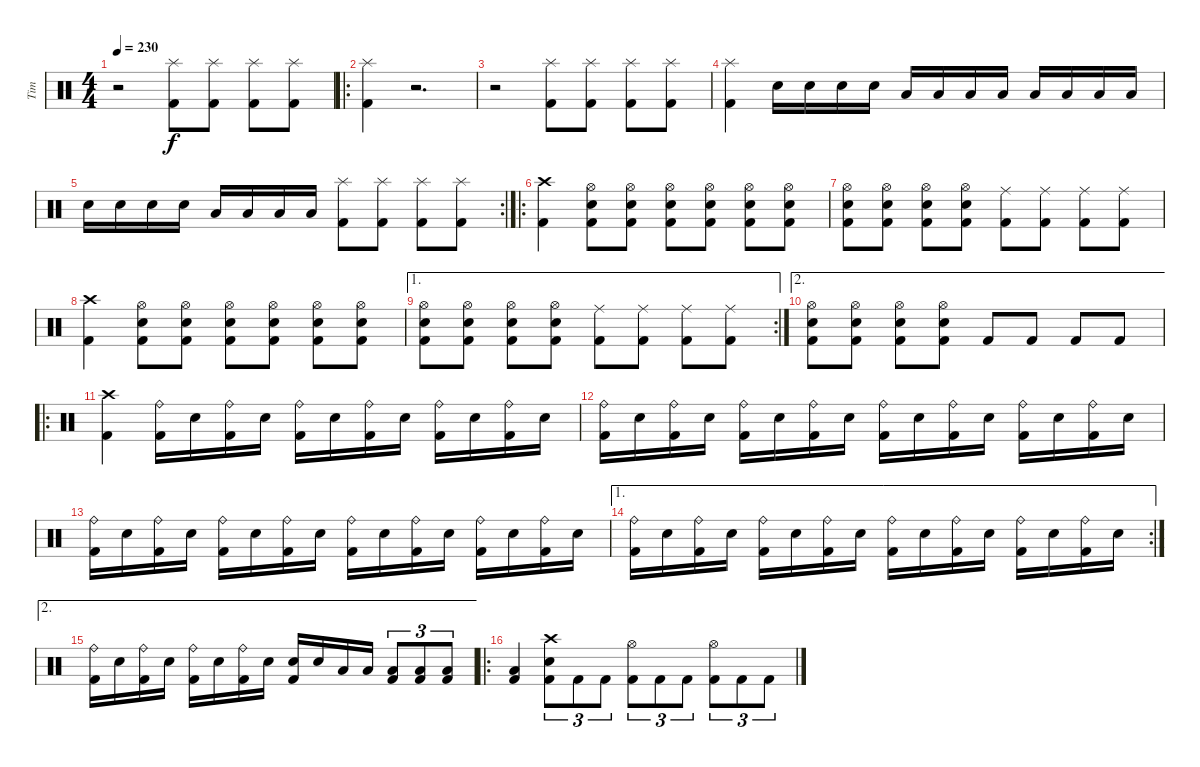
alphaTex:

\track ("Tim" "Tim") {instrument percussion}
\staff {score}
\articulation defaults
\ts (4 4)
\tempo 230
\clef neutral
\ks c
r.2{dy f} ("Splash (hit)" "Kick (hit) 2").8 ("Splash (hit)" "Kick (hit) 2").8 ("Splash (hit)" "Kick (hit) 2").8 ("Splash (hit)" "Kick (hit) 2").8 |
\ro
("Splash (hit)" "Kick (hit) 2").4 r.2{d} |
r.2 ("Splash (hit)" "Kick (hit) 2").8 ("Splash (hit)" "Kick (hit) 2").8 ("Splash (hit)" "Kick (hit) 2").8 ("Splash (hit)" "Kick (hit) 2").8 |
("Splash (hit)" "Kick (hit) 2").4 "Snare (hit) 2".16 "Snare (hit) 2".16 "Snare (hit) 2".16 "Snare (hit) 2".16 "Low Tom (hit)".16 "Low Tom (hit)".16 "Low Tom (hit)".16 "Low Tom (hit)".16 "Low Floor Tom (hit)".16 "Low Floor Tom (hit)".16 "Low Floor Tom (hit)".16 "Low Floor Tom (hit)".16 |
\rc 2 "Snare (hit) 2".16 "Snare (hit) 2".16 "Snare (hit) 2".16 "Snare (hit) 2".16 "Low Tom (hit)".16 "Low Tom (hit)".16 "Low Tom (hit)".16 "Low Tom (hit)".16
("Splash (hit)" "Kick (hit) 2").8 ("Splash (hit)" "Kick (hit) 2").8 ("Splash (hit)" "Kick (hit) 2").8 ("Splash (hit)" "Kick (hit) 2").8 |
\ro
("Crash high (hit)" "Kick (hit) 2").4 ("Snare (hit) 2" "Hi-Hat (open)" "Kick (hit) 2").8 ("Snare (hit) 2" "Hi-Hat (open)" "Kick (hit) 2").8 ("Snare (hit) 2" "Hi-Hat (open)" "Kick (hit) 2").8 ("Snare (hit) 2" "Hi-Hat (open)" "Kick (hit) 2").8 ("Snare (hit) 2" "Hi-Hat (open)" "Kick (hit) 2").8 ("Snare (hit) 2" "Hi-Hat (open)" "Kick (hit) 2").8 |
("Snare (hit) 2" "Hi-Hat (open)" "Kick (hit) 2").8 ("Snare (hit) 2" "Hi-Hat (open)" "Kick (hit) 2").8 ("Snare (hit) 2" "Hi-Hat (open)" "Kick (hit) 2").8 ("Snare (hit) 2" "Hi-Hat (open)" "Kick (hit) 2").8 ("Ride (middle)" "Kick (hit) 2").8 ("Ride (middle)" "Kick (hit) 2").8 ("Ride (middle)" "Kick (hit) 2").8 ("Ride (middle)" "Kick (hit) 2").8 |
("Crash high (hit)" "Kick (hit) 2").4 ("Snare (hit) 2" "Hi-Hat (open)" "Kick (hit) 2").8 ("Snare (hit) 2" "Hi-Hat (open)" "Kick (hit) 2").8 ("Snare (hit) 2" "Hi-Hat (open)" "Kick (hit) 2").8 ("Snare (hit) 2" "Hi-Hat (open)" "Kick (hit) 2").8 ("Snare (hit) 2" "Hi-Hat (open)" "Kick (hit) 2").8 ("Snare (hit) 2" "Hi-Hat (open)" "Kick (hit) 2").8 |
\ae 1
\rc 2
("Snare (hit) 2" "Hi-Hat (open)" "Kick (hit) 2").8 ("Snare (hit) 2" "Hi-Hat (open)" "Kick (hit) 2").8 ("Snare (hit) 2" "Hi-Hat (open)" "Kick (hit) 2").8 ("Snare (hit) 2" "Hi-Hat (open)" "Kick (hit) 2").8 ("Ride (middle)" "Kick (hit) 2").8 ("Ride (middle)" "Kick (hit) 2").8 ("Ride (middle)" "Kick (hit) 2").8 ("Ride (middle)" "Kick (hit) 2").8 |
\ae 2
("Snare (hit) 2" "Hi-Hat (open)" "Kick (hit) 2").8 ("Snare (hit) 2" "Hi-Hat (open)" "Kick (hit) 2").8 ("Snare (hit) 2" "Hi-Hat (open)" "Kick (hit) 2").8 ("Snare (hit) 2" "Hi-Hat (open)" "Kick (hit) 2").8 "Kick (hit) 2".8 "Kick (hit) 2".8 "Kick (hit) 2".8 "Kick (hit) 2".8 |
\ro
("Crash high (hit)" "Kick (hit) 2").4 ("Ride (bell)" "Kick (hit) 2").16 "Snare (hit) 2".16 ("Ride (bell)" "Kick (hit) 2").16 "Snare (hit) 2".16 ("Ride (bell)" "Kick (hit) 2").16 "Snare (hit) 2".16 ("Ride (bell)" "Kick (hit) 2").16 "Snare (hit) 2".16 ("Ride (bell)" "Kick (hit) 2").16 "Snare (hit) 2".16 ("Ride (bell)" "Kick (hit) 2").16 "Snare (hit) 2".16 |
("Ride (bell)" "Kick (hit) 2").16 "Snare (hit) 2".16 ("Ride (bell)" "Kick (hit) 2").16 "Snare (hit) 2".16 ("Ride (bell)" "Kick (hit) 2").16 "Snare (hit) 2".16 ("Ride (bell)" "Kick (hit) 2").16 "Snare (hit) 2".16 ("Ride (bell)" "Kick (hit) 2").16 "Snare (hit) 2".16 ("Ride (bell)" "Kick (hit) 2").16 "Snare (hit) 2".16 ("Ride (bell)" "Kick (hit) 2").16 "Snare (hit) 2".16 ("Ride (bell)" "Kick (hit) 2").16 "Snare (hit) 2".16 |
("Ride (bell)" "Kick (hit) 2").16 "Snare (hit) 2".16 ("Ride (bell)" "Kick (hit) 2").16 "Snare (hit) 2".16 ("Ride (bell)" "Kick (hit) 2").16 "Snare (hit) 2".16 ("Ride (bell)" "Kick (hit) 2").16 "Snare (hit) 2".16 ("Ride (bell)" "Kick (hit) 2").16 "Snare (hit) 2".16 ("Ride (bell)" "Kick (hit) 2").16 "Snare (hit) 2".16 ("Ride (bell)" "Kick (hit) 2").16 "Snare (hit) 2".16 ("Ride (bell)" "Kick (hit) 2").16 "Snare (hit) 2".16 |
\ae 1
\rc 2
("Ride (bell)" "Kick (hit) 2").16 "Snare (hit) 2".16 ("Ride (bell)" "Kick (hit) 2").16 "Snare (hit) 2".16 ("Ride (bell)" "Kick (hit) 2").16 "Snare (hit) 2".16 ("Ride (bell)" "Kick (hit) 2").16 "Snare (hit) 2".16 ("Ride (bell)" "Kick (hit) 2").16 "Snare (hit) 2".16 ("Ride (bell)" "Kick (hit) 2").16 "Snare (hit) 2".16 ("Ride (bell)" "Kick (hit) 2").16 "Snare (hit) 2".16 ("Ride (bell)" "Kick (hit) 2").16 "Snare (hit) 2".16 |
\ae 2
("Ride (bell)" "Kick (hit) 2").16 "Snare (hit) 2".16 ("Ride (bell)" "Kick (hit) 2").16 "Snare (hit) 2".16 ("Ride (bell)" "Kick (hit) 2").16 "Snare (hit) 2".16 ("Ride (bell)" "Kick (hit) 2").16 "Snare (hit) 2".16 ("Snare (hit) 2" "Kick (hit) 2").16 "Snare (hit) 2".16 "Low Tom (hit)".16 "Low Tom (hit)".16 ("Low Floor Tom (hit)" "Kick (hit) 2").8{tu (3 2)} ("Low Floor Tom (hit)" "Kick (hit) 2").8{tu (3 2)} ("Low Floor Tom (hit)" "Kick (hit) 2").8{tu (3 2)} |
\ro
("Low Floor Tom (hit)" "Kick (hit) 2").4 ("Snare (hit) 2" "Crash high (hit)" "Kick (hit) 2").8{tu (3 2)} "Kick (hit) 2".8{tu (3 2)} "Kick (hit) 2".8{tu (3 2)} ("Hi-Hat (open)" "Kick (hit) 2").8{tu (3 2)} "Kick (hit) 2".8{tu (3 2)} "Kick (hit) 2".8{tu (3 2)} ("Hi-Hat (open)" "Kick (hit) 2").8{tu (3 2)} "Kick (hit) 2".8{tu (3 2)} "Kick (hit) 2".8{tu (3 2)}
